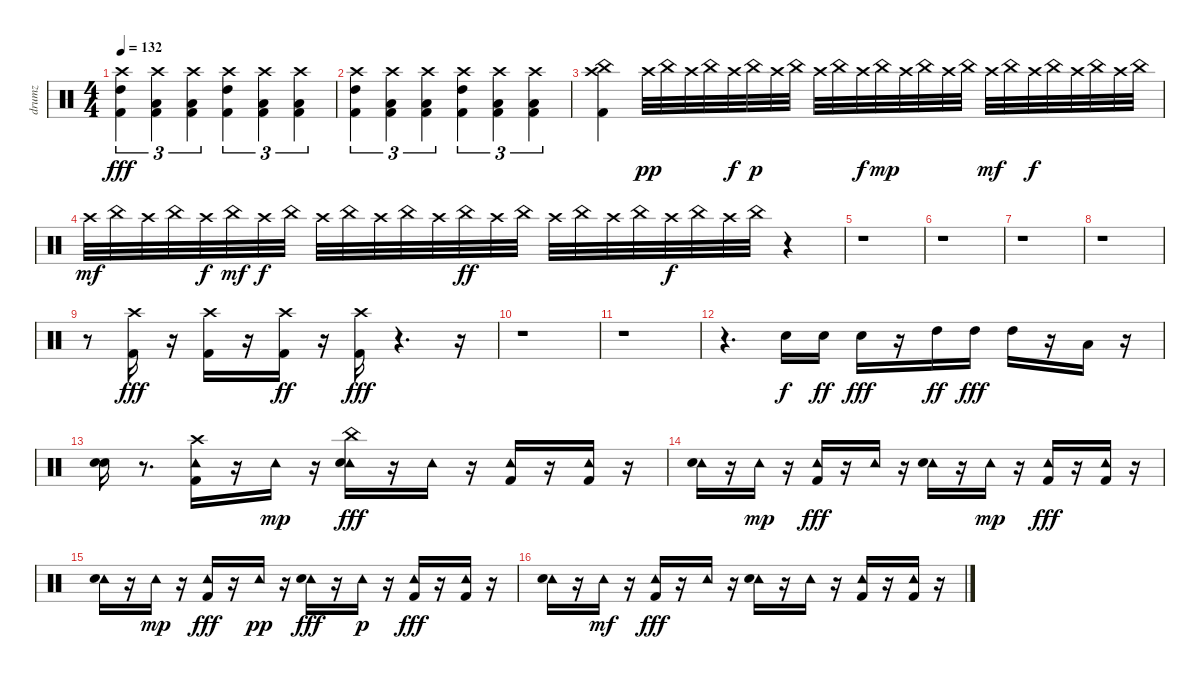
\track ("drumz" "drumz") {instrument percussion}
\staff {score}
\articulation defaults
\ts (4 4)
\tempo 132
\clef neutral
\ks c
("Crash high (hit)" "High Tom (hit)" "Kick (hit) 2").4{tu (3 2) dy fff} ("Crash high (hit)" "Low Tom (hit)" "Kick (hit) 2").4{tu (3 2)} ("Crash high (hit)" "Low Floor Tom (hit)" "Kick (hit) 2").4{tu (3 2)} ("Crash high (hit)" "High Tom (hit)" "Kick (hit) 2").4{tu (3 2)} ("Crash high (hit)" "Low Tom (hit)" "Kick (hit) 2").4{tu (3 2)} ("Crash high (hit)" "Low Floor Tom (hit)" "Kick (hit) 2").4{tu (3 2)} |
("Crash high (hit)" "High Tom (hit)" "Kick (hit) 2").4{tu (3 2)} ("Crash high (hit)" "Low Tom (hit)" "Kick (hit) 2").4{tu (3 2)} ("Crash high (hit)" "Low Floor Tom (hit)" "Kick (hit) 2").4{tu (3 2)} ("Crash high (hit)" "High Tom (hit)" "Kick (hit) 2").4{tu (3 2)} ("Crash high (hit)" "Low Tom (hit)" "Kick (hit) 2").4{tu (3 2)} ("Crash high (hit)" "Low Floor Tom (hit)" "Kick (hit) 2").4{tu (3 2)} |
("China (hit)" "Crash high (hit)" "Kick (hit) 2").4 "Crash high (hit)".32{dy pp} "China (hit)".32 "Crash high (hit)".32 "China (hit)".32 "Crash high (hit)".32{dy f} "China (hit)".32{dy p} "Crash high (hit)".32 "China (hit)".32 "Crash high (hit)".32 "China (hit)".32 "Crash high (hit)".32{dy f} "China (hit)".32{dy mp} "Crash high (hit)".32 "China (hit)".32 "Crash high (hit)".32 "China (hit)".32 "Crash high (hit)".32{dy mf} "China (hit)".32 "Crash high (hit)".32{dy f} "China (hit)".32 "Crash high (hit)".32 "China (hit)".32 "Crash high (hit)".32 "China (hit)".32 |
"Crash high (hit)".32{dy mf} "China (hit)".32 "Crash high (hit)".32 "China (hit)".32 "Crash high (hit)".32{dy f} "China (hit)".32{dy mf} "Crash high (hit)".32{dy f} "China (hit)".32 "Crash high (hit)".32 "China (hit)".32 "Crash high (hit)".32 "China (hit)".32 "Crash high (hit)".32 "China (hit)".32{dy ff} "Crash high (hit)".32 "China (hit)".32 "Crash high (hit)".32 "China (hit)".32 "Crash high (hit)".32 "China (hit)".32 "Crash high (hit)".32{dy f} "China (hit)".32 "Crash high (hit)".32 "China (hit)".32 r.4 |
r.1 |
r.1 |
r.1 |
r.1 |
r.8 ("Crash high (hit)" "Kick (hit) 2").16{dy fff} r.16 ("Crash high (hit)" "Kick (hit) 2").16 r.16 ("Crash high (hit)" "Kick (hit) 2").16{dy ff} r.16 ("Crash high (hit)" "Kick (hit) 2").16{dy fff} r.4{d} r.16 |
r.1 |
r.1 |
r.4{d} "Snare (hit) 2".16{dy f} "Snare (hit) 2".16{dy ff} "Snare (hit) 2".16{dy fff} r.16 "High Tom (hit)".16{dy ff} "High Tom (hit)".16{dy fff} "High Tom (hit)".16 r.16 "Low Tom (hit)".16 r.16 |
("Snare (hit) 2" "Snare (hit) 2").16 r.8{d} ("Tambourine (hit)" "Crash high (hit)" "Kick (hit) 2").16 r.16 "Tambourine (hit)".16{dy mp} r.16 ("Tambourine (hit)" "China (hit)" "Snare (hit) 2").16{dy fff} r.16 "Tambourine (hit)".16 r.16 ("Tambourine (hit)" "Kick (hit) 2").16 r.16 ("Tambourine (hit)" "Kick (hit) 2").16 r.16 |
("Tambourine (hit)" "Snare (hit) 2").16 r.16 "Tambourine (hit)".16{dy mp} r.16 ("Tambourine (hit)" "Kick (hit) 2").16{dy fff} r.16 "Tambourine (hit)".16 r.16 ("Tambourine (hit)" "Snare (hit) 2").16 r.16 "Tambourine (hit)".16{dy mp} r.16 ("Tambourine (hit)" "Kick (hit) 2").16{dy fff} r.16 ("Tambourine (hit)" "Kick (hit) 2").16 r.16 |
("Tambourine (hit)" "Snare (hit) 2").16 r.16 "Tambourine (hit)".16{dy mp} r.16 ("Tambourine (hit)" "Kick (hit) 2").16{dy fff} r.16 "Tambourine (hit)".16{dy pp} r.16 ("Tambourine (hit)" "Snare (hit) 2").16{dy fff} r.16 "Tambourine (hit)".16{dy p} r.16 ("Tambourine (hit)" "Kick (hit) 2").16{dy fff} r.16 ("Tambourine (hit)" "Kick (hit) 2").16 r.16 |
("Tambourine (hit)" "Snare (hit) 2").16 r.16 "Tambourine (hit)".16{dy mf} r.16 ("Tambourine (hit)" "Kick (hit) 2").16{dy fff} r.16 "Tambourine (hit)".16 r.16 ("Tambourine (hit)" "Snare (hit) 2").16 r.16 "Tambourine (hit)".16 r.16 ("Tambourine (hit)" "Kick (hit) 2").16 r.16 ("Tambourine (hit)" "Kick (hit) 2").16 r.16
